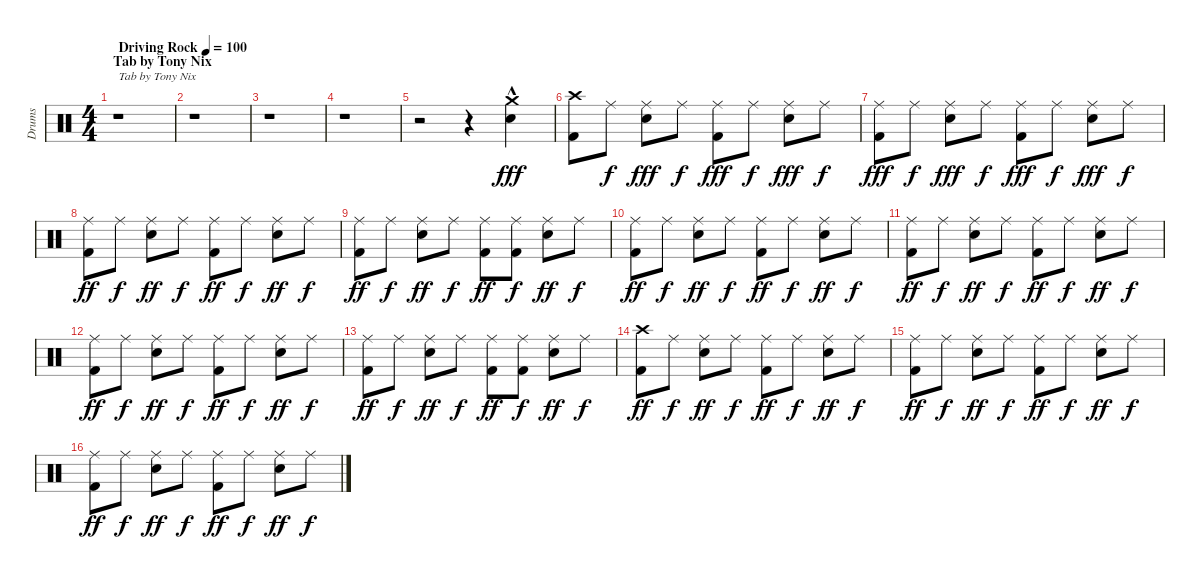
\track ("Drums" "Drums") {instrument percussion}
\staff {score}
\articulation defaults
\ts (4 4)
\section ("" "Tab by Tony Nix")
\tempo (100 "Driving Rock")
\clef neutral
\ks c
r.1{txt "Tab by Tony Nix" dy fff} |
r.1 |
r.1 |
r.1 |
r.2 r.4 ("Crash medium (hit)"{hac} "Snare (hit) 2"{hac}).4 |
("Crash high (hit)" "Kick (hit) 2").8 "Ride (middle)".8{dy f} ("Ride (middle)" "Snare (hit) 2").8{dy fff} "Ride (middle)".8{dy f} ("Ride (middle)" "Kick (hit) 2").8{dy fff} "Ride (middle)".8{dy f} ("Ride (middle)" "Snare (hit) 2").8{dy fff} "Ride (middle)".8{dy f} |
("Ride (middle)" "Kick (hit) 2").8{dy fff} "Ride (middle)".8{dy f} ("Ride (middle)" "Snare (hit) 2").8{dy fff} "Ride (middle)".8{dy f} ("Ride (middle)" "Kick (hit) 2").8{dy fff} "Ride (middle)".8{dy f} ("Ride (middle)" "Snare (hit) 2").8{dy fff} "Ride (middle)".8{dy f} |
("Ride (middle)" "Kick (hit) 2").8{dy ff} "Ride (middle)".8{dy f} ("Ride (middle)" "Snare (hit) 2").8{dy ff} "Ride (middle)".8{dy f} ("Ride (middle)" "Kick (hit) 2").8{dy ff} "Ride (middle)".8{dy f} ("Ride (middle)" "Snare (hit) 2").8{dy ff} "Ride (middle)".8{dy f} |
("Ride (middle)" "Kick (hit) 2").8{dy ff} "Ride (middle)".8{dy f} ("Ride (middle)" "Snare (hit) 2").8{dy ff} "Ride (middle)".8{dy f} ("Ride (middle)" "Kick (hit) 2").8{dy ff} ("Ride (middle)" "Kick (hit) 2").8{dy f} ("Ride (middle)" "Snare (hit) 2").8{dy ff} "Ride (middle)".8{dy f} |
("Ride (middle)" "Kick (hit) 2").8{dy ff} "Ride (middle)".8{dy f} ("Ride (middle)" "Snare (hit) 2").8{dy ff} "Ride (middle)".8{dy f} ("Ride (middle)" "Kick (hit) 2").8{dy ff} "Ride (middle)".8{dy f} ("Ride (middle)" "Snare (hit) 2").8{dy ff} "Ride (middle)".8{dy f} |
("Ride (middle)" "Kick (hit) 2").8{dy ff} "Ride (middle)".8{dy f} ("Ride (middle)" "Snare (hit) 2").8{dy ff} "Ride (middle)".8{dy f} ("Ride (middle)" "Kick (hit) 2").8{dy ff} "Ride (middle)".8{dy f} ("Ride (middle)" "Snare (hit) 2").8{dy ff} "Ride (middle)".8{dy f} |
("Ride (middle)" "Kick (hit) 2").8{dy ff} "Ride (middle)".8{dy f} ("Ride (middle)" "Snare (hit) 2").8{dy ff} "Ride (middle)".8{dy f} ("Ride (middle)" "Kick (hit) 2").8{dy ff} "Ride (middle)".8{dy f} ("Ride (middle)" "Snare (hit) 2").8{dy ff} "Ride (middle)".8{dy f} |
("Ride (middle)" "Kick (hit) 2").8{dy ff} "Ride (middle)".8{dy f} ("Ride (middle)" "Snare (hit) 2").8{dy ff} "Ride (middle)".8{dy f} ("Ride (middle)" "Kick (hit) 2").8{dy ff} ("Ride (middle)" "Kick (hit) 2").8{dy f} ("Ride (middle)" "Snare (hit) 2").8{dy ff} "Ride (middle)".8{dy f} |
("Crash high (hit)" "Kick (hit) 2").8{dy ff} "Ride (middle)".8{dy f} ("Ride (middle)" "Snare (hit) 2").8{dy ff} "Ride (middle)".8{dy f} ("Ride (middle)" "Kick (hit) 2").8{dy ff} "Ride (middle)".8{dy f} ("Ride (middle)" "Snare (hit) 2").8{dy ff} "Ride (middle)".8{dy f} |
("Ride (middle)" "Kick (hit) 2").8{dy ff} "Ride (middle)".8{dy f} ("Ride (middle)" "Snare (hit) 2").8{dy ff} "Ride (middle)".8{dy f} ("Ride (middle)" "Kick (hit) 2").8{dy ff} "Ride (middle)".8{dy f} ("Ride (middle)" "Snare (hit) 2").8{dy ff} "Ride (middle)".8{dy f} |
("Ride (middle)" "Kick (hit) 2").8{dy ff} "Ride (middle)".8{dy f} ("Ride (middle)" "Snare (hit) 2").8{dy ff} "Ride (middle)".8{dy f} ("Ride (middle)" "Kick (hit) 2").8{dy ff} "Ride (middle)".8{dy f} ("Ride (middle)" "Snare (hit) 2").8{dy ff} "Ride (middle)".8{dy f}
